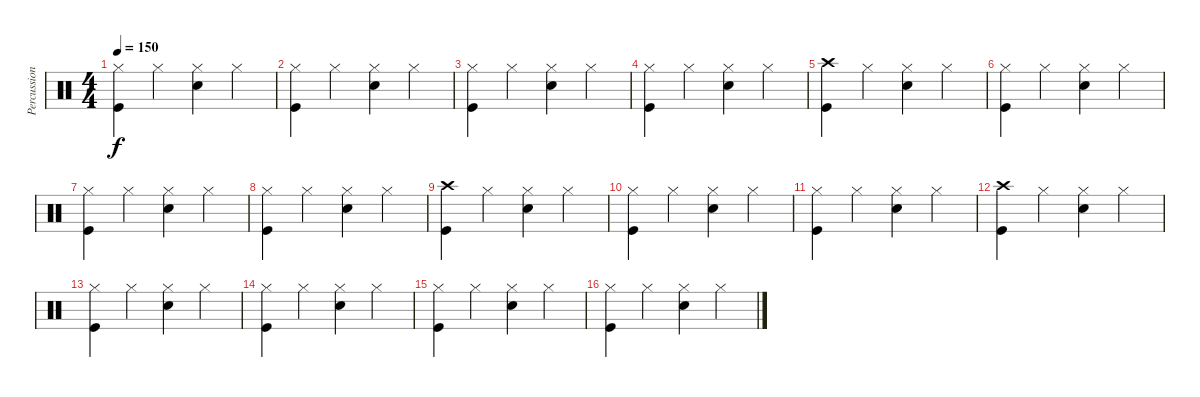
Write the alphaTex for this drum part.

\track ("Percussion" "Percussion") {instrument percussion}
\staff {score}
\articulation defaults
\ts (4 4)
\tempo 150
\clef neutral
\ks c
("Hi-Hat (closed)" "Kick (hit)").4{dy f} "Hi-Hat (closed)".4 ("Hi-Hat (closed)" "Snare (hit) 2").4 "Hi-Hat (closed)".4 |
("Hi-Hat (closed)" "Kick (hit)").4 "Hi-Hat (closed)".4 ("Hi-Hat (closed)" "Snare (hit) 2").4 "Hi-Hat (closed)".4 |
("Hi-Hat (closed)" "Kick (hit)").4 "Hi-Hat (closed)".4 ("Hi-Hat (closed)" "Snare (hit) 2").4 "Hi-Hat (closed)".4 |
("Hi-Hat (closed)" "Kick (hit)").4 "Hi-Hat (closed)".4 ("Hi-Hat (closed)" "Snare (hit) 2").4 "Hi-Hat (closed)".4 |
("Crash high (hit)" "Kick (hit)").4 "Hi-Hat (closed)".4 ("Hi-Hat (closed)" "Snare (hit) 2").4 "Hi-Hat (closed)".4 |
("Hi-Hat (closed)" "Kick (hit)").4 "Hi-Hat (closed)".4 ("Hi-Hat (closed)" "Snare (hit) 2").4 "Hi-Hat (closed)".4 |
("Hi-Hat (closed)" "Kick (hit)").4 "Hi-Hat (closed)".4 ("Hi-Hat (closed)" "Snare (hit) 2").4 "Hi-Hat (closed)".4 |
("Hi-Hat (closed)" "Kick (hit)").4 "Hi-Hat (closed)".4 ("Hi-Hat (closed)" "Snare (hit) 2").4 "Hi-Hat (closed)".4 |
("Crash high (hit)" "Kick (hit)").4 "Hi-Hat (closed)".4 ("Hi-Hat (closed)" "Snare (hit) 2").4 "Hi-Hat (closed)".4 |
("Hi-Hat (closed)" "Kick (hit)").4 "Hi-Hat (closed)".4 ("Hi-Hat (closed)" "Snare (hit) 2").4 "Hi-Hat (closed)".4 |
("Hi-Hat (closed)" "Kick (hit)").4 "Hi-Hat (closed)".4 ("Hi-Hat (closed)" "Snare (hit) 2").4 "Hi-Hat (closed)".4 |
("Crash high (hit)" "Kick (hit)").4 "Hi-Hat (closed)".4 ("Hi-Hat (closed)" "Snare (hit) 2").4 "Hi-Hat (closed)".4 |
("Hi-Hat (closed)" "Kick (hit)").4 "Hi-Hat (closed)".4 ("Hi-Hat (closed)" "Snare (hit) 2").4 "Hi-Hat (closed)".4 |
("Hi-Hat (closed)" "Kick (hit)").4 "Hi-Hat (closed)".4 ("Hi-Hat (closed)" "Snare (hit) 2").4 "Hi-Hat (closed)".4 |
("Hi-Hat (closed)" "Kick (hit)").4 "Hi-Hat (closed)".4 ("Hi-Hat (closed)" "Snare (hit) 2").4 "Hi-Hat (closed)".4 |
("Hi-Hat (closed)" "Kick (hit)").4 "Hi-Hat (closed)".4 ("Hi-Hat (closed)" "Snare (hit) 2").4 "Hi-Hat (closed)".4
